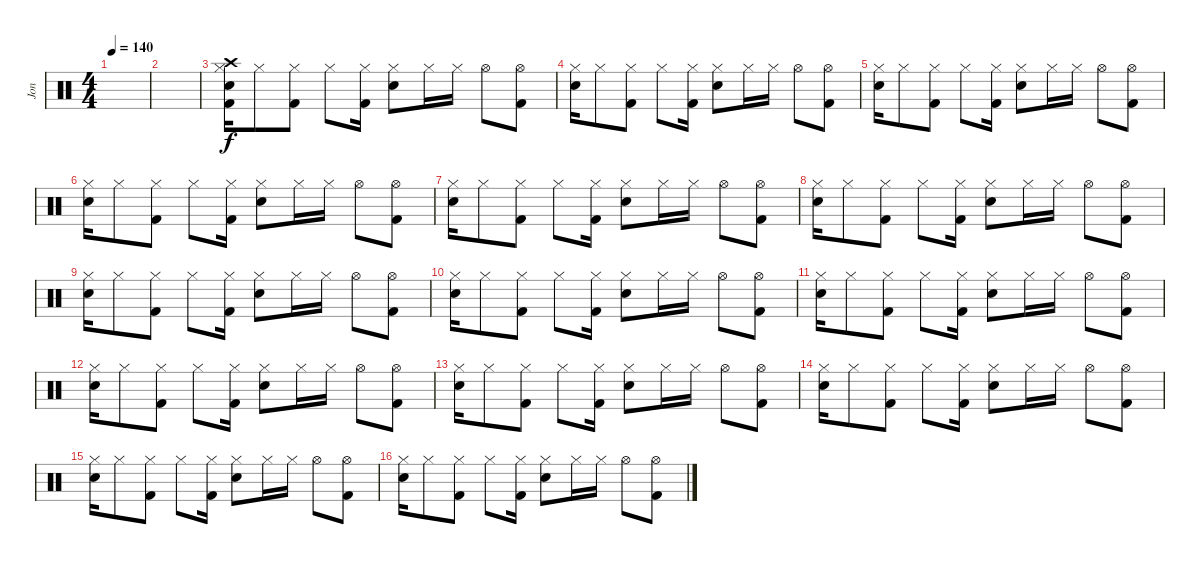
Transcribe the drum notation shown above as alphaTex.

\track ("Jon" "Jon") {instrument percussion}
\staff {score}
\articulation defaults
\ts (4 4)
\tempo 140
\clef neutral
\ks c
|
|
("Crash high (hit)" "Hi-Hat (closed)" "Electric Snare (hit)" "Kick (hit) 2").16 "Hi-Hat (closed)".8 ("Hi-Hat (closed)" "Kick (hit) 2").8 "Hi-Hat (closed)".8 ("Hi-Hat (closed)" "Kick (hit) 2").16 ("Hi-Hat (closed)" "Snare (hit) 2").8 "Hi-Hat (closed)".16 "Hi-Hat (closed)".16 "Hi-Hat (open)".8 ("Hi-Hat (open)" "Kick (hit) 2").8 |
("Hi-Hat (closed)" "Electric Snare (hit)").16 "Hi-Hat (closed)".8 ("Hi-Hat (closed)" "Kick (hit) 2").8 "Hi-Hat (closed)".8 ("Hi-Hat (closed)" "Kick (hit) 2").16 ("Hi-Hat (closed)" "Snare (hit) 2").8 "Hi-Hat (closed)".16 "Hi-Hat (closed)".16 "Hi-Hat (open)".8 ("Hi-Hat (open)" "Kick (hit) 2").8 |
("Hi-Hat (closed)" "Electric Snare (hit)").16 "Hi-Hat (closed)".8 ("Hi-Hat (closed)" "Kick (hit) 2").8 "Hi-Hat (closed)".8 ("Hi-Hat (closed)" "Kick (hit) 2").16 ("Hi-Hat (closed)" "Snare (hit) 2").8 "Hi-Hat (closed)".16 "Hi-Hat (closed)".16 "Hi-Hat (open)".8 ("Hi-Hat (open)" "Kick (hit) 2").8 |
("Hi-Hat (closed)" "Electric Snare (hit)").16 "Hi-Hat (closed)".8 ("Hi-Hat (closed)" "Kick (hit) 2").8 "Hi-Hat (closed)".8 ("Hi-Hat (closed)" "Kick (hit) 2").16 ("Hi-Hat (closed)" "Snare (hit) 2").8 "Hi-Hat (closed)".16 "Hi-Hat (closed)".16 "Hi-Hat (open)".8 ("Hi-Hat (open)" "Kick (hit) 2").8 |
("Hi-Hat (closed)" "Electric Snare (hit)").16 "Hi-Hat (closed)".8 ("Hi-Hat (closed)" "Kick (hit) 2").8 "Hi-Hat (closed)".8 ("Hi-Hat (closed)" "Kick (hit) 2").16 ("Hi-Hat (closed)" "Snare (hit) 2").8 "Hi-Hat (closed)".16 "Hi-Hat (closed)".16 "Hi-Hat (open)".8 ("Hi-Hat (open)" "Kick (hit) 2").8 |
("Hi-Hat (closed)" "Electric Snare (hit)").16 "Hi-Hat (closed)".8 ("Hi-Hat (closed)" "Kick (hit) 2").8 "Hi-Hat (closed)".8 ("Hi-Hat (closed)" "Kick (hit) 2").16 ("Hi-Hat (closed)" "Snare (hit) 2").8 "Hi-Hat (closed)".16 "Hi-Hat (closed)".16 "Hi-Hat (open)".8 ("Hi-Hat (open)" "Kick (hit) 2").8 |
("Hi-Hat (closed)" "Electric Snare (hit)").16 "Hi-Hat (closed)".8 ("Hi-Hat (closed)" "Kick (hit) 2").8 "Hi-Hat (closed)".8 ("Hi-Hat (closed)" "Kick (hit) 2").16 ("Hi-Hat (closed)" "Snare (hit) 2").8 "Hi-Hat (closed)".16 "Hi-Hat (closed)".16 "Hi-Hat (open)".8 ("Hi-Hat (open)" "Kick (hit) 2").8 |
("Hi-Hat (closed)" "Electric Snare (hit)").16 "Hi-Hat (closed)".8 ("Hi-Hat (closed)" "Kick (hit) 2").8 "Hi-Hat (closed)".8 ("Hi-Hat (closed)" "Kick (hit) 2").16 ("Hi-Hat (closed)" "Snare (hit) 2").8 "Hi-Hat (closed)".16 "Hi-Hat (closed)".16 "Hi-Hat (open)".8 ("Hi-Hat (open)" "Kick (hit) 2").8 |
("Hi-Hat (closed)" "Electric Snare (hit)").16 "Hi-Hat (closed)".8 ("Hi-Hat (closed)" "Kick (hit) 2").8 "Hi-Hat (closed)".8 ("Hi-Hat (closed)" "Kick (hit) 2").16 ("Hi-Hat (closed)" "Snare (hit) 2").8 "Hi-Hat (closed)".16 "Hi-Hat (closed)".16 "Hi-Hat (open)".8 ("Hi-Hat (open)" "Kick (hit) 2").8 |
("Hi-Hat (closed)" "Electric Snare (hit)").16 "Hi-Hat (closed)".8 ("Hi-Hat (closed)" "Kick (hit) 2").8 "Hi-Hat (closed)".8 ("Hi-Hat (closed)" "Kick (hit) 2").16 ("Hi-Hat (closed)" "Snare (hit) 2").8 "Hi-Hat (closed)".16 "Hi-Hat (closed)".16 "Hi-Hat (open)".8 ("Hi-Hat (open)" "Kick (hit) 2").8 |
("Hi-Hat (closed)" "Electric Snare (hit)").16 "Hi-Hat (closed)".8 ("Hi-Hat (closed)" "Kick (hit) 2").8 "Hi-Hat (closed)".8 ("Hi-Hat (closed)" "Kick (hit) 2").16 ("Hi-Hat (closed)" "Snare (hit) 2").8 "Hi-Hat (closed)".16 "Hi-Hat (closed)".16 "Hi-Hat (open)".8 ("Hi-Hat (open)" "Kick (hit) 2").8 |
("Hi-Hat (closed)" "Electric Snare (hit)").16 "Hi-Hat (closed)".8 ("Hi-Hat (closed)" "Kick (hit) 2").8 "Hi-Hat (closed)".8 ("Hi-Hat (closed)" "Kick (hit) 2").16 ("Hi-Hat (closed)" "Snare (hit) 2").8 "Hi-Hat (closed)".16 "Hi-Hat (closed)".16 "Hi-Hat (open)".8 ("Hi-Hat (open)" "Kick (hit) 2").8 |
("Hi-Hat (closed)" "Electric Snare (hit)").16 "Hi-Hat (closed)".8 ("Hi-Hat (closed)" "Kick (hit) 2").8 "Hi-Hat (closed)".8 ("Hi-Hat (closed)" "Kick (hit) 2").16 ("Hi-Hat (closed)" "Snare (hit) 2").8 "Hi-Hat (closed)".16 "Hi-Hat (closed)".16 "Hi-Hat (open)".8 ("Hi-Hat (open)" "Kick (hit) 2").8 |
("Hi-Hat (closed)" "Electric Snare (hit)").16 "Hi-Hat (closed)".8 ("Hi-Hat (closed)" "Kick (hit) 2").8 "Hi-Hat (closed)".8 ("Hi-Hat (closed)" "Kick (hit) 2").16 ("Hi-Hat (closed)" "Snare (hit) 2").8 "Hi-Hat (closed)".16 "Hi-Hat (closed)".16 "Hi-Hat (open)".8 ("Hi-Hat (open)" "Kick (hit) 2").8
